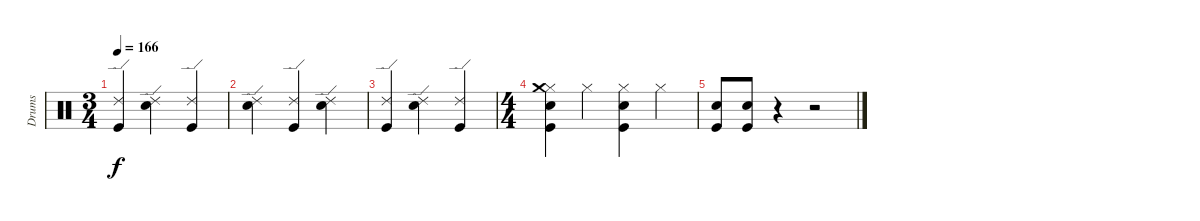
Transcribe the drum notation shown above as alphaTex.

\track ("Drums" "Drums") {instrument percussion}
\staff {score}
\articulation defaults
\ts (3 4)
\tempo 166
\clef neutral
\ks c
("Ride (edge) 2" "Kick (hit)").4{dy f} ("Ride (edge) 2" "Snare (hit) 2").4 ("Ride (edge) 2" "Kick (hit)").4 |
("Ride (edge) 2" "Snare (hit) 2").4 ("Ride (edge) 2" "Kick (hit)").4 ("Ride (edge) 2" "Snare (hit) 2").4 |
("Ride (edge) 2" "Kick (hit)").4 ("Ride (edge) 2" "Snare (hit) 2").4 ("Ride (edge) 2" "Kick (hit)").4 |
\ts (4 4)
("Hi-Hat (closed)" "Kick (hit)" "Crash medium (hit)" "Snare (hit) 2").4 "Hi-Hat (closed)".4 ("Hi-Hat (closed)" "Kick (hit)" "Snare (hit) 2").4 "Hi-Hat (closed)".4 |
("Kick (hit)" "Snare (hit) 2").8 ("Kick (hit)" "Snare (hit) 2").8 r.4 r.2
